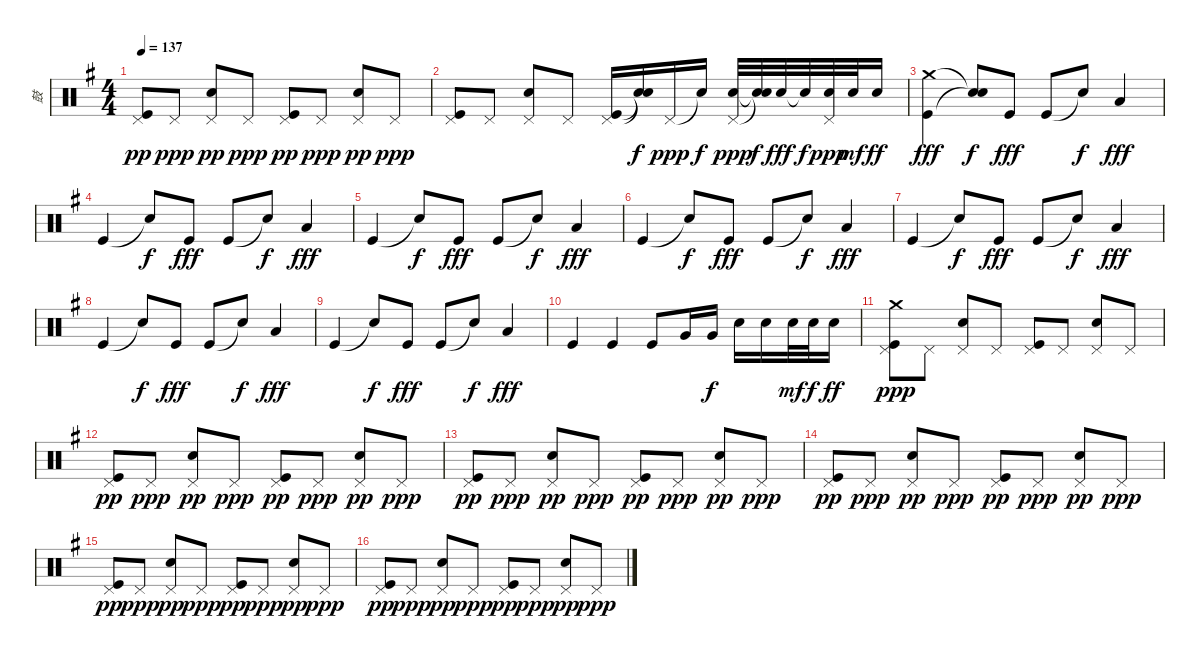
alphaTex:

\track ("鼓" "鼓") {instrument percussion}
\staff {score}
\articulation defaults
\ts (4 4)
\tempo 137
\clef neutral
\ks g
("Kick (hit)" "Pedal Hi-Hat (hit)").8{dy pp} "Pedal Hi-Hat (hit)".8{dy ppp} ("Snare (hit) 2" "Pedal Hi-Hat (hit)").8{dy pp} "Pedal Hi-Hat (hit)".8{dy ppp} ("Kick (hit)" "Pedal Hi-Hat (hit)").8{dy pp} "Pedal Hi-Hat (hit)".8{dy ppp} ("Snare (hit) 2" "Pedal Hi-Hat (hit)").8{dy pp} "Pedal Hi-Hat (hit)".8{dy ppp} |
("Kick (hit)" "Pedal Hi-Hat (hit)").8 "Pedal Hi-Hat (hit)".8 ("Snare (hit) 2" "Pedal Hi-Hat (hit)").8 "Pedal Hi-Hat (hit)".8 ("Kick (hit)" "Pedal Hi-Hat (hit)").16 ("Snare (hit)"{t} "Snare (hit)"{t}).16{dy f} "Pedal Hi-Hat (hit)".16{dy ppp} "Snare (hit)"{t}.16{dy f} ("Snare (hit) 2" "Pedal Hi-Hat (hit)").32{dy ppp} ("Snare (hit)"{t} "Snare (hit)"{t}).32{dy f} "Snare (hit) 2".32{dy fff} "Snare (hit)"{t}.32{dy f} ("Snare (hit) 2" "Pedal Hi-Hat (hit)").32{dy ppp} "Snare (hit) 2".32{dy mf} "Snare (hit) 2".16{dy ff} |
("Kick (hit)" "Crash medium (hit)").4{dy fff} ("Snare (hit)"{t} "Snare (hit)"{t}).8{dy f} "Kick (hit)".8{dy fff} "Kick (hit)".8 "Snare (hit)"{t}.8{dy f} "Low Floor Tom (hit)".4{dy fff} |
"Kick (hit)".4 "Snare (hit)"{t}.8{dy f} "Kick (hit)".8{dy fff} "Kick (hit)".8 "Snare (hit)"{t}.8{dy f} "Low Floor Tom (hit)".4{dy fff} |
"Kick (hit)".4 "Snare (hit)"{t}.8{dy f} "Kick (hit)".8{dy fff} "Kick (hit)".8 "Snare (hit)"{t}.8{dy f} "Low Floor Tom (hit)".4{dy fff} |
"Kick (hit)".4 "Snare (hit)"{t}.8{dy f} "Kick (hit)".8{dy fff} "Kick (hit)".8 "Snare (hit)"{t}.8{dy f} "Low Floor Tom (hit)".4{dy fff} |
"Kick (hit)".4 "Snare (hit)"{t}.8{dy f} "Kick (hit)".8{dy fff} "Kick (hit)".8 "Snare (hit)"{t}.8{dy f} "Low Floor Tom (hit)".4{dy fff} |
"Kick (hit)".4 "Snare (hit)"{t}.8{dy f} "Kick (hit)".8{dy fff} "Kick (hit)".8 "Snare (hit)"{t}.8{dy f} "Low Floor Tom (hit)".4{dy fff} |
"Kick (hit)".4 "Snare (hit)"{t}.8{dy f} "Kick (hit)".8{dy fff} "Kick (hit)".8 "Snare (hit)"{t}.8{dy f} "Low Floor Tom (hit)".4{dy fff} |
"Kick (hit)".4 "Kick (hit)".4 "Kick (hit)".8 "Very Low Tom (hit)".16 "Very Low Tom (hit)".16{dy f} "Snare (hit) 2".16 "Snare (hit) 2".16 "Snare (hit) 2".32{dy mf} "Snare (hit) 2".32{dy f} "Snare (hit) 2".16{dy ff} |
("Crash medium (hit)" "Kick (hit)" "Pedal Hi-Hat (hit)").8{dy ppp} "Pedal Hi-Hat (hit)".8 ("Snare (hit) 2" "Pedal Hi-Hat (hit)").8 "Pedal Hi-Hat (hit)".8 ("Kick (hit)" "Pedal Hi-Hat (hit)").8 "Pedal Hi-Hat (hit)".8 ("Snare (hit) 2" "Pedal Hi-Hat (hit)").8 "Pedal Hi-Hat (hit)".8 |
("Kick (hit)" "Pedal Hi-Hat (hit)").8{dy pp} "Pedal Hi-Hat (hit)".8{dy ppp} ("Snare (hit) 2" "Pedal Hi-Hat (hit)").8{dy pp} "Pedal Hi-Hat (hit)".8{dy ppp} ("Kick (hit)" "Pedal Hi-Hat (hit)").8{dy pp} "Pedal Hi-Hat (hit)".8{dy ppp} ("Snare (hit) 2" "Pedal Hi-Hat (hit)").8{dy pp} "Pedal Hi-Hat (hit)".8{dy ppp} |
("Kick (hit)" "Pedal Hi-Hat (hit)").8{dy pp} "Pedal Hi-Hat (hit)".8{dy ppp} ("Snare (hit) 2" "Pedal Hi-Hat (hit)").8{dy pp} "Pedal Hi-Hat (hit)".8{dy ppp} ("Kick (hit)" "Pedal Hi-Hat (hit)").8{dy pp} "Pedal Hi-Hat (hit)".8{dy ppp} ("Snare (hit) 2" "Pedal Hi-Hat (hit)").8{dy pp} "Pedal Hi-Hat (hit)".8{dy ppp} |
("Kick (hit)" "Pedal Hi-Hat (hit)").8{dy pp} "Pedal Hi-Hat (hit)".8{dy ppp} ("Snare (hit) 2" "Pedal Hi-Hat (hit)").8{dy pp} "Pedal Hi-Hat (hit)".8{dy ppp} ("Kick (hit)" "Pedal Hi-Hat (hit)").8{dy pp} "Pedal Hi-Hat (hit)".8{dy ppp} ("Snare (hit) 2" "Pedal Hi-Hat (hit)").8{dy pp} "Pedal Hi-Hat (hit)".8{dy ppp} |
("Kick (hit)" "Pedal Hi-Hat (hit)").8{dy pp} "Pedal Hi-Hat (hit)".8{dy ppp} ("Snare (hit) 2" "Pedal Hi-Hat (hit)").8{dy pp} "Pedal Hi-Hat (hit)".8{dy ppp} ("Kick (hit)" "Pedal Hi-Hat (hit)").8{dy pp} "Pedal Hi-Hat (hit)".8{dy ppp} ("Snare (hit) 2" "Pedal Hi-Hat (hit)").8{dy pp} "Pedal Hi-Hat (hit)".8{dy ppp} |
("Kick (hit)" "Pedal Hi-Hat (hit)").8{dy pp} "Pedal Hi-Hat (hit)".8{dy ppp} ("Snare (hit) 2" "Pedal Hi-Hat (hit)").8{dy pp} "Pedal Hi-Hat (hit)".8{dy ppp} ("Kick (hit)" "Pedal Hi-Hat (hit)").8{dy pp} "Pedal Hi-Hat (hit)".8{dy ppp} ("Snare (hit) 2" "Pedal Hi-Hat (hit)").8{dy pp} "Pedal Hi-Hat (hit)".8{dy ppp}
